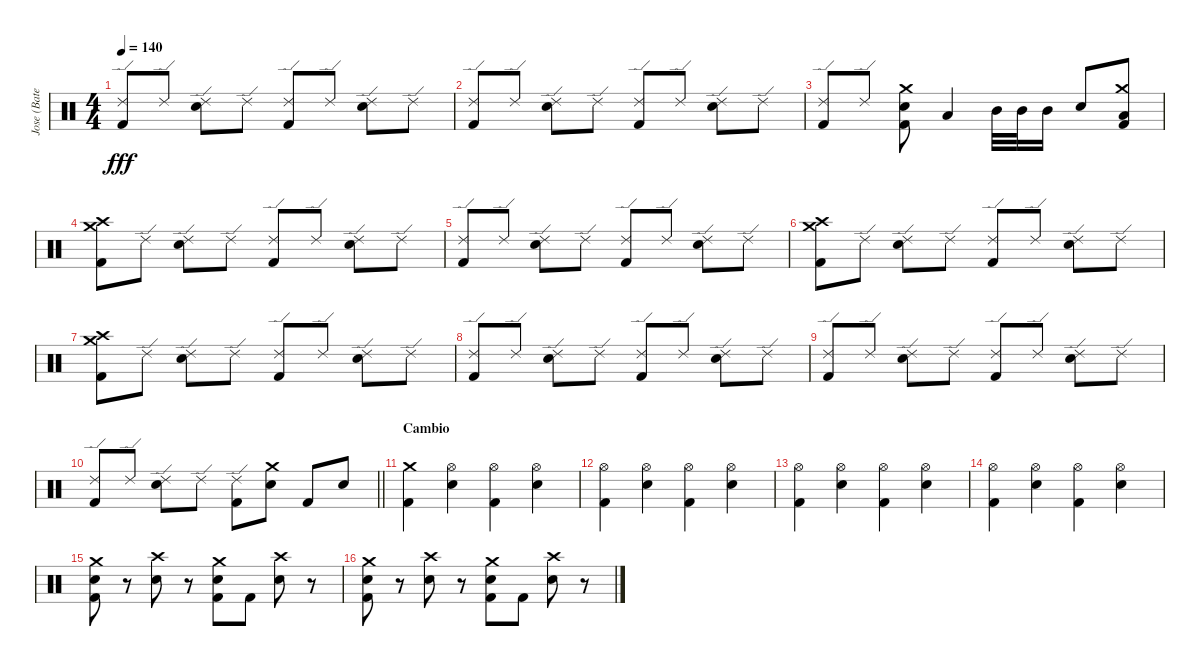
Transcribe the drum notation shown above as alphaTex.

\track ("Jose (Bateria)" "Jose (Bate") {instrument percussion}
\staff {score}
\articulation defaults
\ts (4 4)
\tempo 140
\clef neutral
\ks aminor
("Ride (edge) 2" "Kick (hit) 2").8{dy fff} "Ride (edge) 2".8 ("Ride (edge) 2" "Snare (hit) 2").8 "Ride (edge) 2".8 ("Ride (edge) 2" "Kick (hit) 2").8 "Ride (edge) 2".8 ("Ride (edge) 2" "Snare (hit) 2").8 "Ride (edge) 2".8 |
("Ride (edge) 2" "Kick (hit) 2").8 "Ride (edge) 2".8 ("Ride (edge) 2" "Snare (hit) 2").8 "Ride (edge) 2".8 ("Ride (edge) 2" "Kick (hit) 2").8 "Ride (edge) 2".8 ("Ride (edge) 2" "Snare (hit) 2").8 "Ride (edge) 2".8 |
("Ride (edge) 2" "Kick (hit) 2").8 "Ride (edge) 2".8 ("Crash medium (hit)" "Snare (hit) 2" "Kick (hit) 2").8 "Low Tom (hit)".4 "Mid Tom (hit)".32 "Mid Tom (hit)".32 "Mid Tom (hit)".16 "Snare (hit) 2".8 ("Crash medium (hit)" "Low Tom (hit)" "Kick (hit) 2").8 |
("Crash high (hit)" "Crash medium (hit)" "Kick (hit) 2").8 "Ride (edge) 2".8 ("Ride (edge) 2" "Snare (hit) 2").8 "Ride (edge) 2".8 ("Ride (edge) 2" "Kick (hit) 2").8 "Ride (edge) 2".8 ("Ride (edge) 2" "Snare (hit) 2").8 "Ride (edge) 2".8 |
("Ride (edge) 2" "Kick (hit) 2").8 "Ride (edge) 2".8 ("Ride (edge) 2" "Snare (hit) 2").8 "Ride (edge) 2".8 ("Ride (edge) 2" "Kick (hit) 2").8 "Ride (edge) 2".8 ("Ride (edge) 2" "Snare (hit) 2").8 "Ride (edge) 2".8 |
("Crash medium (hit)" "Crash high (hit)" "Kick (hit) 2").8 "Ride (edge) 2".8 ("Ride (edge) 2" "Snare (hit) 2").8 "Ride (edge) 2".8 ("Ride (edge) 2" "Kick (hit) 2").8 "Ride (edge) 2".8 ("Ride (edge) 2" "Snare (hit) 2").8 "Ride (edge) 2".8 |
("Crash high (hit)" "Crash medium (hit)" "Kick (hit) 2").8 "Ride (edge) 2".8 ("Ride (edge) 2" "Snare (hit) 2").8 "Ride (edge) 2".8 ("Ride (edge) 2" "Kick (hit) 2").8 "Ride (edge) 2".8 ("Ride (edge) 2" "Snare (hit) 2").8 "Ride (edge) 2".8 |
("Ride (edge) 2" "Kick (hit) 2").8 "Ride (edge) 2".8 ("Ride (edge) 2" "Snare (hit) 2").8 "Ride (edge) 2".8 ("Ride (edge) 2" "Kick (hit) 2").8 "Ride (edge) 2".8 ("Ride (edge) 2" "Snare (hit) 2").8 "Ride (edge) 2".8 |
("Ride (edge) 2" "Kick (hit) 2").8 "Ride (edge) 2".8 ("Ride (edge) 2" "Snare (hit) 2").8 "Ride (edge) 2".8 ("Ride (edge) 2" "Kick (hit) 2").8 "Ride (edge) 2".8 ("Ride (edge) 2" "Snare (hit) 2").8 "Ride (edge) 2".8 |
\barLineRight lightlight
("Ride (edge) 2" "Kick (hit) 2").8 "Ride (edge) 2".8 ("Ride (edge) 2" "Snare (hit) 2").8 "Ride (edge) 2".8 ("Ride (edge) 2" "Kick (hit) 2").8 ("Crash medium (hit)" "Snare (hit) 2").8 "Kick (hit) 2".8 "Snare (hit) 2".8 |
\section ("" "Cambio")
("Crash medium (hit)" "Kick (hit) 2").4 ("Hi-Hat (open)" "Snare (hit) 2").4 ("Hi-Hat (open)" "Kick (hit) 2").4 ("Hi-Hat (open)" "Snare (hit) 2").4 |
("Hi-Hat (open)" "Kick (hit) 2").4 ("Hi-Hat (open)" "Snare (hit) 2").4 ("Hi-Hat (open)" "Kick (hit) 2").4 ("Hi-Hat (open)" "Snare (hit) 2").4 |
("Hi-Hat (open)" "Kick (hit) 2").4 ("Hi-Hat (open)" "Snare (hit) 2").4 ("Hi-Hat (open)" "Kick (hit) 2").4 ("Hi-Hat (open)" "Snare (hit) 2").4 |
("Hi-Hat (open)" "Kick (hit) 2").4 ("Hi-Hat (open)" "Snare (hit) 2").4 ("Hi-Hat (open)" "Kick (hit) 2").4 ("Hi-Hat (open)" "Snare (hit) 2").4 |
("Crash medium (hit)" "Snare (hit) 2" "Kick (hit) 2").8 r.8 ("Crash high (hit)" "Snare (hit) 2").8 r.8 ("Crash medium (hit)" "Snare (hit) 2" "Kick (hit) 2").8 "Kick (hit) 2".8 ("Crash high (hit)" "Snare (hit) 2").8 r.8 |
("Crash medium (hit)" "Snare (hit) 2" "Kick (hit) 2").8 r.8 ("Crash high (hit)" "Snare (hit) 2").8 r.8 ("Crash medium (hit)" "Snare (hit) 2" "Kick (hit) 2").8 "Kick (hit) 2".8 ("Crash high (hit)" "Snare (hit) 2").8 r.8
